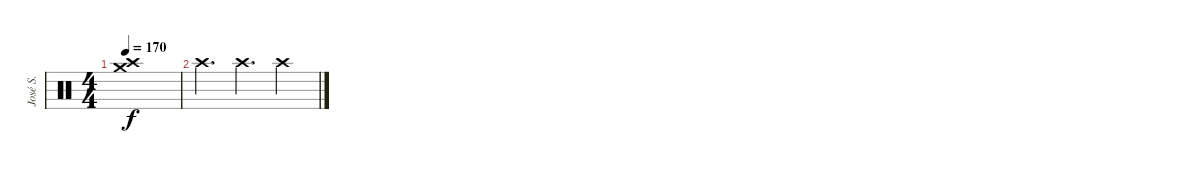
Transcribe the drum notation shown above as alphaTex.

\track ("José S." "José S.") {instrument percussion}
\staff {score}
\articulation defaults
\ts (4 4)
\tempo 170
\clef neutral
\ks c
("Crash high (hit)" "Crash medium (hit)").1{dy f} |
"Crash high (hit)".4{d} "Crash high (hit)".4{d} "Crash high (hit)".4
